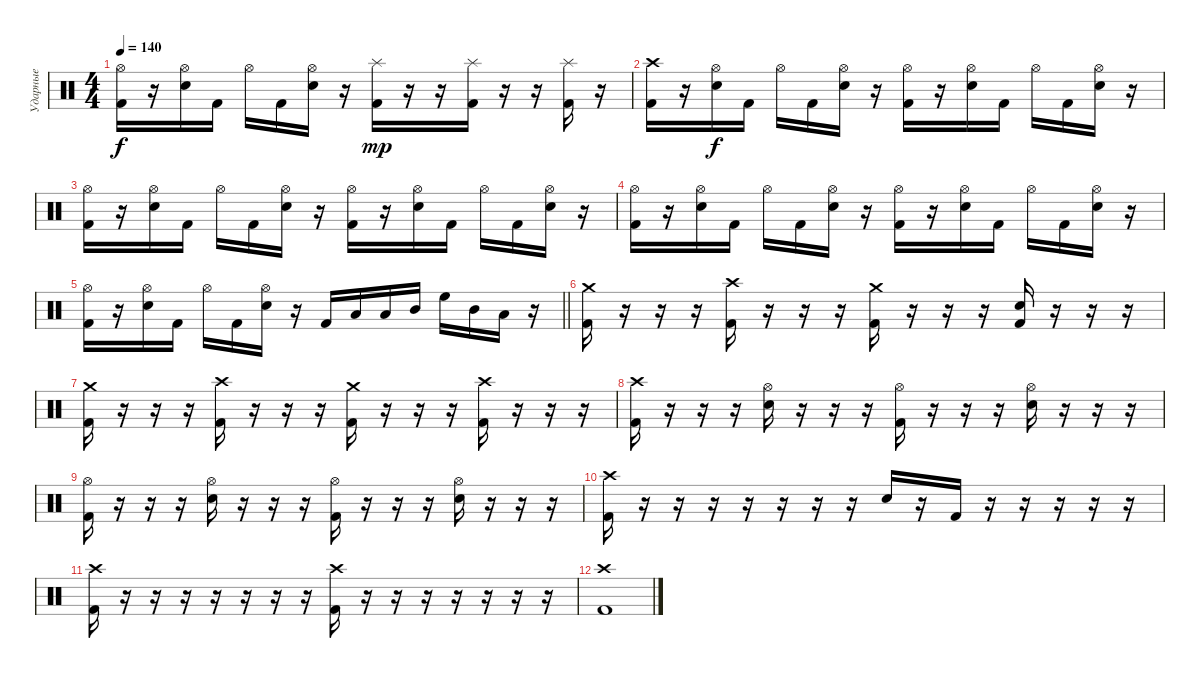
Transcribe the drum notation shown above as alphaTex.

\track ("Ударные" "Ударные") {instrument percussion}
\staff {score}
\articulation defaults
\ts (4 4)
\tempo 140
\clef neutral
\ks c
("Hi-Hat (open)" "Kick (hit) 2").16{dy f} r.16 ("Hi-Hat (open)" "Electric Snare (hit)").16 "Kick (hit) 2".16 "Hi-Hat (open)".16 "Kick (hit) 2".16 ("Hi-Hat (open)" "Electric Snare (hit)").16 r.16 ("Splash (hit)" "Kick (hit) 2").16{dy mp} r.16 r.16 ("Splash (hit)" "Kick (hit) 2").16 r.16 r.16 ("Splash (hit)" "Kick (hit) 2").16 r.16 |
("Crash high (hit)" "Kick (hit) 2").16 r.16 ("Hi-Hat (open)" "Electric Snare (hit)").16{dy f} "Kick (hit) 2".16 "Hi-Hat (open)".16 "Kick (hit) 2".16 ("Hi-Hat (open)" "Electric Snare (hit)").16 r.16 ("Hi-Hat (open)" "Kick (hit) 2").16 r.16 ("Hi-Hat (open)" "Electric Snare (hit)").16 "Kick (hit) 2".16 "Hi-Hat (open)".16 "Kick (hit) 2".16 ("Hi-Hat (open)" "Electric Snare (hit)").16 r.16 |
("Hi-Hat (open)" "Kick (hit) 2").16 r.16 ("Hi-Hat (open)" "Electric Snare (hit)").16 "Kick (hit) 2".16 "Hi-Hat (open)".16 "Kick (hit) 2".16 ("Hi-Hat (open)" "Electric Snare (hit)").16 r.16 ("Hi-Hat (open)" "Kick (hit) 2").16 r.16 ("Hi-Hat (open)" "Electric Snare (hit)").16 "Kick (hit) 2".16 "Hi-Hat (open)".16 "Kick (hit) 2".16 ("Hi-Hat (open)" "Electric Snare (hit)").16 r.16 |
("Hi-Hat (open)" "Kick (hit) 2").16 r.16 ("Hi-Hat (open)" "Electric Snare (hit)").16 "Kick (hit) 2".16 "Hi-Hat (open)".16 "Kick (hit) 2".16 ("Hi-Hat (open)" "Electric Snare (hit)").16 r.16 ("Hi-Hat (open)" "Kick (hit) 2").16 r.16 ("Hi-Hat (open)" "Electric Snare (hit)").16 "Kick (hit) 2".16 "Hi-Hat (open)".16 "Kick (hit) 2".16 ("Hi-Hat (open)" "Electric Snare (hit)").16 r.16 |
\barLineRight lightlight
("Hi-Hat (open)" "Kick (hit) 2").16 r.16 ("Hi-Hat (open)" "Electric Snare (hit)").16 "Kick (hit) 2".16 "Hi-Hat (open)".16 "Kick (hit) 2".16 ("Hi-Hat (open)" "Electric Snare (hit)").16 r.16 "Kick (hit) 2".16 "Low Tom (hit)".16 "Low Tom (hit)".16 "Mid Tom (hit)".16 "High Floor Tom (hit)".16 "Mid Tom (hit)".16 "Low Tom (hit)".16 r.16 |
("Crash medium (hit)" "Kick (hit) 2").16 r.16 r.16 r.16 ("Crash high (hit)" "Kick (hit) 2").16 r.16 r.16 r.16 ("Crash medium (hit)" "Kick (hit) 2").16 r.16 r.16 r.16 ("Electric Snare (hit)" "Kick (hit) 2").16 r.16 r.16 r.16 |
("Crash medium (hit)" "Kick (hit) 2").16 r.16 r.16 r.16 ("Crash high (hit)" "Kick (hit) 2").16 r.16 r.16 r.16 ("Crash medium (hit)" "Kick (hit) 2").16 r.16 r.16 r.16 ("Crash high (hit)" "Kick (hit) 2").16 r.16 r.16 r.16 |
("Crash high (hit)" "Kick (hit) 2").16 r.16 r.16 r.16 ("Hi-Hat (open)" "Electric Snare (hit)").16 r.16 r.16 r.16 ("Hi-Hat (open)" "Kick (hit) 2").16 r.16 r.16 r.16 ("Hi-Hat (open)" "Electric Snare (hit)").16 r.16 r.16 r.16 |
("Hi-Hat (open)" "Kick (hit) 2").16 r.16 r.16 r.16 ("Hi-Hat (open)" "Electric Snare (hit)").16 r.16 r.16 r.16 ("Hi-Hat (open)" "Kick (hit) 2").16 r.16 r.16 r.16 ("Hi-Hat (open)" "Electric Snare (hit)").16 r.16 r.16 r.16 |
("Crash high (hit)" "Kick (hit) 2").16 r.16 r.16 r.16 r.16 r.16 r.16 r.16 "Electric Snare (hit)".16 r.16 "Kick (hit) 2".16 r.16 r.16 r.16 r.16 r.16 |
("Crash high (hit)" "Kick (hit) 2").16 r.16 r.16 r.16 r.16 r.16 r.16 r.16 ("Crash high (hit)" "Kick (hit) 2").16 r.16 r.16 r.16 r.16 r.16 r.16 r.16 |
("Crash high (hit)" "Kick (hit) 2").1
